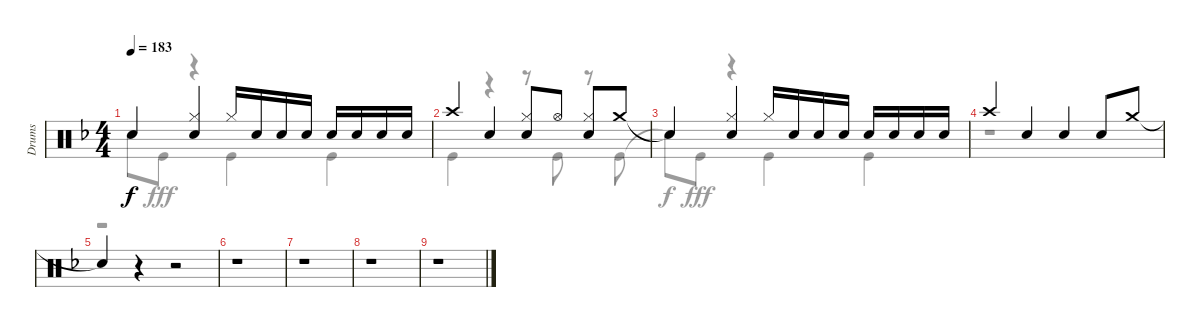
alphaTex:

\track ("Drums" "Drums") {instrument percussion}
\staff {score}
\articulation defaults
\voice
\ts (4 4)
\tempo 183
\clef neutral
\ks f "Snare (hit)"{t}.4{dy f}
("Hi-Hat (closed)" "Snare (hit) 2").4 "Hi-Hat (closed)".16 "Snare (hit) 2".16 "Snare (hit) 2".16 "Snare (hit) 2".16 "Snare (hit) 2".16 "Snare (hit) 2".16 "Snare (hit) 2".16 "Snare (hit) 2".16 |
"Crash high (hit)".4 "Snare (hit) 2".4 ("Hi-Hat (closed)" "Snare (hit) 2").8 "Hi-Hat (open)".8 ("Hi-Hat (closed)" "Snare (hit) 2").8 "Crash medium (hit)".8 |
"Snare (hit)"{t}.4 ("Hi-Hat (closed)" "Snare (hit) 2").4 "Hi-Hat (closed)".16 "Snare (hit) 2".16 "Snare (hit) 2".16 "Snare (hit) 2".16 "Snare (hit) 2".16 "Snare (hit) 2".16 "Snare (hit) 2".16 "Snare (hit) 2".16 |
"Crash high (hit)".4 "Snare (hit) 2".4 "Snare (hit) 2".4 "Snare (hit) 2".8 "Crash medium (hit)".8 |
"Snare (hit)"{t}.4 r.4 r.2 |
r.1 |
r.1 |
r.1 |
r.1
\voice
\clef neutral
\ottava regular
\simile none
\ks f "Snare (hit)"{t}.8{dy f} "Kick (hit)".8{dy fff}
r.4 "Kick (hit)".4 "Kick (hit)".4 |
"Kick (hit)".4 r.4 r.8 "Kick (hit)".8 r.8 "Kick (hit)".8 |
"Snare (hit)"{t}.8{dy f} "Kick (hit)".8{dy fff} r.4 "Kick (hit)".4 "Kick (hit)".4 |
r.1 |
r.1 |
r.1 |
r.1 |
r.1 |
r.1
